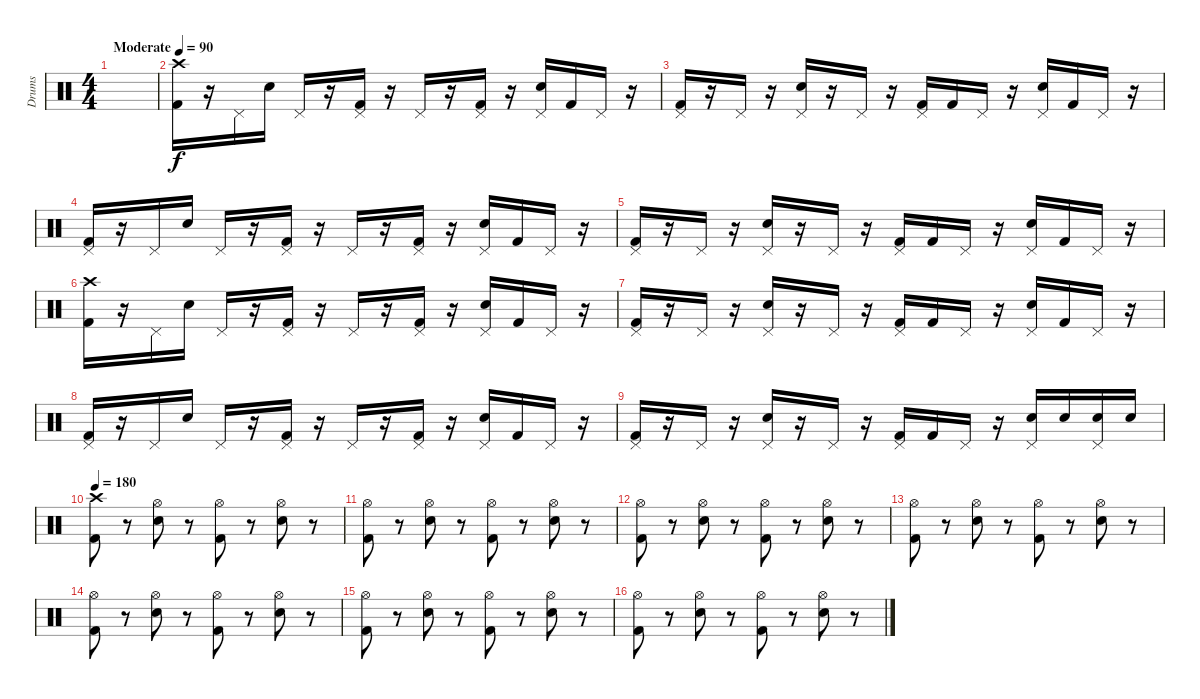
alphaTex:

\track ("Drums" "Drums") {instrument percussion}
\staff {score}
\articulation defaults
\ts (4 4)
\tempo (90 "Moderate")
\clef neutral
\ks c
|
("Crash high (hit)" "Kick (hit) 2").16 r.16 "Pedal Hi-Hat (hit)".16 "Snare (hit) 2".16 "Pedal Hi-Hat (hit)".16 r.16 ("Pedal Hi-Hat (hit)" "Kick (hit) 2").16 r.16 "Pedal Hi-Hat (hit)".16 r.16 ("Pedal Hi-Hat (hit)" "Kick (hit) 2").16 r.16 ("Pedal Hi-Hat (hit)" "Snare (hit) 2").16 "Kick (hit) 2".16 "Pedal Hi-Hat (hit)".16 r.16 |
("Pedal Hi-Hat (hit)" "Kick (hit) 2").16 r.16 "Pedal Hi-Hat (hit)".16 r.16 ("Pedal Hi-Hat (hit)" "Snare (hit) 2").16 r.16 "Pedal Hi-Hat (hit)".16 r.16 ("Pedal Hi-Hat (hit)" "Kick (hit) 2").16 "Kick (hit) 2".16 "Pedal Hi-Hat (hit)".16 r.16 ("Pedal Hi-Hat (hit)" "Snare (hit) 2").16 "Kick (hit) 2".16 "Pedal Hi-Hat (hit)".16 r.16 |
("Pedal Hi-Hat (hit)" "Kick (hit) 2").16 r.16 "Pedal Hi-Hat (hit)".16 "Snare (hit) 2".16 "Pedal Hi-Hat (hit)".16 r.16 ("Pedal Hi-Hat (hit)" "Kick (hit) 2").16 r.16 "Pedal Hi-Hat (hit)".16 r.16 ("Pedal Hi-Hat (hit)" "Kick (hit) 2").16 r.16 ("Pedal Hi-Hat (hit)" "Snare (hit) 2").16 "Kick (hit) 2".16 "Pedal Hi-Hat (hit)".16 r.16 |
("Pedal Hi-Hat (hit)" "Kick (hit) 2").16 r.16 "Pedal Hi-Hat (hit)".16 r.16 ("Pedal Hi-Hat (hit)" "Snare (hit) 2").16 r.16 "Pedal Hi-Hat (hit)".16 r.16 ("Pedal Hi-Hat (hit)" "Kick (hit) 2").16 "Kick (hit) 2".16 "Pedal Hi-Hat (hit)".16 r.16 ("Pedal Hi-Hat (hit)" "Snare (hit) 2").16 "Kick (hit) 2".16 "Pedal Hi-Hat (hit)".16 r.16 |
("Crash high (hit)" "Kick (hit) 2").16 r.16 "Pedal Hi-Hat (hit)".16 "Snare (hit) 2".16 "Pedal Hi-Hat (hit)".16 r.16 ("Pedal Hi-Hat (hit)" "Kick (hit) 2").16 r.16 "Pedal Hi-Hat (hit)".16 r.16 ("Pedal Hi-Hat (hit)" "Kick (hit) 2").16 r.16 ("Pedal Hi-Hat (hit)" "Snare (hit) 2").16 "Kick (hit) 2".16 "Pedal Hi-Hat (hit)".16 r.16 |
("Pedal Hi-Hat (hit)" "Kick (hit) 2").16 r.16 "Pedal Hi-Hat (hit)".16 r.16 ("Pedal Hi-Hat (hit)" "Snare (hit) 2").16 r.16 "Pedal Hi-Hat (hit)".16 r.16 ("Pedal Hi-Hat (hit)" "Kick (hit) 2").16 "Kick (hit) 2".16 "Pedal Hi-Hat (hit)".16 r.16 ("Pedal Hi-Hat (hit)" "Snare (hit) 2").16 "Kick (hit) 2".16 "Pedal Hi-Hat (hit)".16 r.16 |
("Pedal Hi-Hat (hit)" "Kick (hit) 2").16 r.16 "Pedal Hi-Hat (hit)".16 "Snare (hit) 2".16 "Pedal Hi-Hat (hit)".16 r.16 ("Pedal Hi-Hat (hit)" "Kick (hit) 2").16 r.16 "Pedal Hi-Hat (hit)".16 r.16 ("Pedal Hi-Hat (hit)" "Kick (hit) 2").16 r.16 ("Pedal Hi-Hat (hit)" "Snare (hit) 2").16 "Kick (hit) 2".16 "Pedal Hi-Hat (hit)".16 r.16 |
("Pedal Hi-Hat (hit)" "Kick (hit) 2").16 r.16 "Pedal Hi-Hat (hit)".16 r.16 ("Pedal Hi-Hat (hit)" "Snare (hit) 2").16 r.16 "Pedal Hi-Hat (hit)".16 r.16 ("Pedal Hi-Hat (hit)" "Kick (hit) 2").16 "Kick (hit) 2".16 "Pedal Hi-Hat (hit)".16 r.16 ("Pedal Hi-Hat (hit)" "Snare (hit) 2").16 "Snare (hit) 2".16 ("Pedal Hi-Hat (hit)" "Snare (hit) 2").16 "Snare (hit) 2".16 |
\tempo 180
("Crash high (hit)" "Kick (hit) 2").8 r.8 ("Hi-Hat (open)" "Snare (hit) 2").8 r.8 ("Hi-Hat (open)" "Kick (hit) 2").8 r.8 ("Hi-Hat (open)" "Snare (hit) 2").8 r.8 |
("Hi-Hat (open)" "Kick (hit) 2").8 r.8 ("Hi-Hat (open)" "Snare (hit) 2").8 r.8 ("Hi-Hat (open)" "Kick (hit) 2").8 r.8 ("Hi-Hat (open)" "Snare (hit) 2").8 r.8 |
("Hi-Hat (open)" "Kick (hit) 2").8 r.8 ("Hi-Hat (open)" "Snare (hit) 2").8 r.8 ("Hi-Hat (open)" "Kick (hit) 2").8 r.8 ("Hi-Hat (open)" "Snare (hit) 2").8 r.8 |
("Hi-Hat (open)" "Kick (hit) 2").8 r.8 ("Hi-Hat (open)" "Snare (hit) 2").8 r.8 ("Hi-Hat (open)" "Kick (hit) 2").8 r.8 ("Hi-Hat (open)" "Snare (hit) 2").8 r.8 |
("Hi-Hat (open)" "Kick (hit) 2").8 r.8 ("Hi-Hat (open)" "Snare (hit) 2").8 r.8 ("Hi-Hat (open)" "Kick (hit) 2").8 r.8 ("Hi-Hat (open)" "Snare (hit) 2").8 r.8 |
("Hi-Hat (open)" "Kick (hit) 2").8 r.8 ("Hi-Hat (open)" "Snare (hit) 2").8 r.8 ("Hi-Hat (open)" "Kick (hit) 2").8 r.8 ("Hi-Hat (open)" "Snare (hit) 2").8 r.8 |
("Hi-Hat (open)" "Kick (hit) 2").8 r.8 ("Hi-Hat (open)" "Snare (hit) 2").8 r.8 ("Hi-Hat (open)" "Kick (hit) 2").8 r.8 ("Hi-Hat (open)" "Snare (hit) 2").8 r.8
